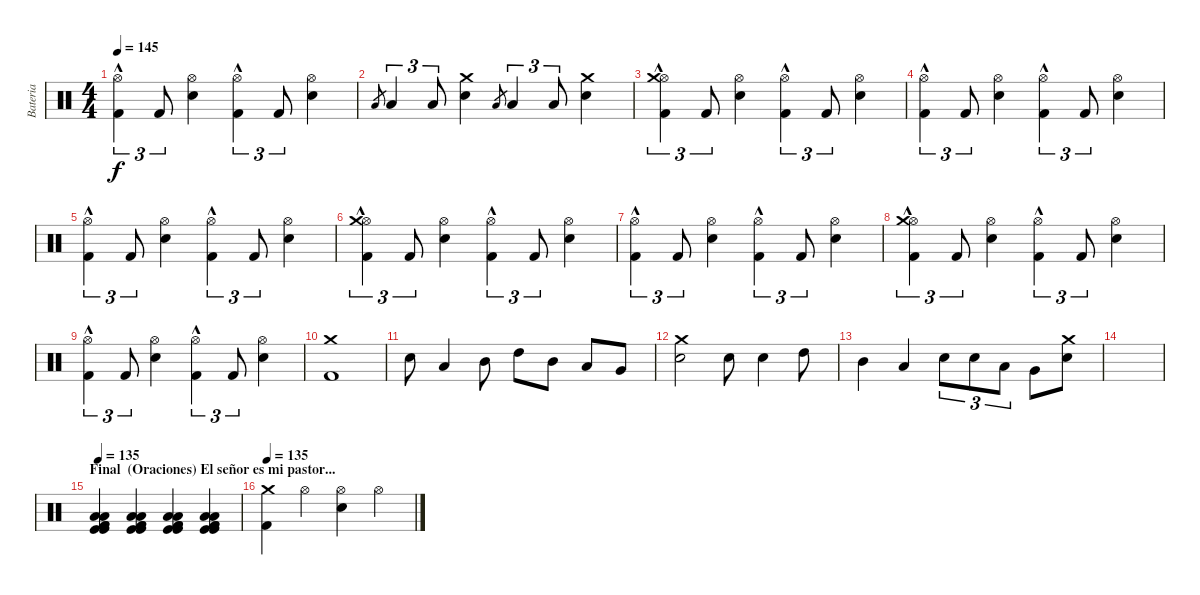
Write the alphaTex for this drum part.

\track ("Bateria" "Bateria") {instrument percussion}
\staff {score}
\articulation defaults
\ts (4 4)
\tempo 145
\clef neutral
\ks c
("Hi-Hat (open)"{hac} "Kick (hit) 2").4{tu (3 2) dy f} "Kick (hit) 2".8{tu (3 2)} ("Hi-Hat (open)" "Snare (hit) 2").4 ("Hi-Hat (open)"{hac} "Kick (hit) 2").4{tu (3 2)} "Kick (hit) 2".8{tu (3 2)} ("Hi-Hat (open)" "Snare (hit) 2").4 |
"Low Tom (hit)".8{gr} "Low Tom (hit)".4{tu (3 2)} "Low Tom (hit)".8{tu (3 2)} ("Crash medium (hit)" "Snare (hit) 2").4 "Low Tom (hit)".8{gr} "Low Tom (hit)".4{tu (3 2)} "Low Tom (hit)".8{tu (3 2)} ("Crash medium (hit)" "Snare (hit) 2").4 |
("Hi-Hat (open)"{hac} "Crash medium (hit)" "Kick (hit) 2").4{tu (3 2)} "Kick (hit) 2".8{tu (3 2)} ("Hi-Hat (open)" "Snare (hit) 2").4 ("Hi-Hat (open)"{hac} "Kick (hit) 2").4{tu (3 2)} "Kick (hit) 2".8{tu (3 2)} ("Hi-Hat (open)" "Snare (hit) 2").4 |
("Hi-Hat (open)"{hac} "Kick (hit) 2").4{tu (3 2)} "Kick (hit) 2".8{tu (3 2)} ("Hi-Hat (open)" "Snare (hit) 2").4 ("Hi-Hat (open)"{hac} "Kick (hit) 2").4{tu (3 2)} "Kick (hit) 2".8{tu (3 2)} ("Hi-Hat (open)" "Snare (hit) 2").4 |
("Hi-Hat (open)"{hac} "Kick (hit) 2").4{tu (3 2)} "Kick (hit) 2".8{tu (3 2)} ("Hi-Hat (open)" "Snare (hit) 2").4 ("Hi-Hat (open)"{hac} "Kick (hit) 2").4{tu (3 2)} "Kick (hit) 2".8{tu (3 2)} ("Hi-Hat (open)" "Snare (hit) 2").4 |
("Hi-Hat (open)"{hac} "Crash medium (hit)" "Kick (hit) 2").4{tu (3 2)} "Kick (hit) 2".8{tu (3 2)} ("Hi-Hat (open)" "Snare (hit) 2").4 ("Hi-Hat (open)"{hac} "Kick (hit) 2").4{tu (3 2)} "Kick (hit) 2".8{tu (3 2)} ("Hi-Hat (open)" "Snare (hit) 2").4 |
("Hi-Hat (open)"{hac} "Kick (hit) 2").4{tu (3 2)} "Kick (hit) 2".8{tu (3 2)} ("Hi-Hat (open)" "Snare (hit) 2").4 ("Hi-Hat (open)"{hac} "Kick (hit) 2").4{tu (3 2)} "Kick (hit) 2".8{tu (3 2)} ("Hi-Hat (open)" "Snare (hit) 2").4 |
("Hi-Hat (open)"{hac} "Crash medium (hit)" "Kick (hit) 2").4{tu (3 2)} "Kick (hit) 2".8{tu (3 2)} ("Hi-Hat (open)" "Snare (hit) 2").4 ("Hi-Hat (open)"{hac} "Kick (hit) 2").4{tu (3 2)} "Kick (hit) 2".8{tu (3 2)} ("Hi-Hat (open)" "Snare (hit) 2").4 |
("Hi-Hat (open)"{hac} "Kick (hit) 2").4{tu (3 2)} "Kick (hit) 2".8{tu (3 2)} ("Hi-Hat (open)" "Snare (hit) 2").4 ("Hi-Hat (open)"{hac} "Kick (hit) 2").4{tu (3 2)} "Kick (hit) 2".8{tu (3 2)} ("Hi-Hat (open)" "Snare (hit) 2").4 |
("Kick (hit) 2" "Crash medium (hit)").1 |
"Snare (hit) 2".8 "Low Tom (hit)".4 "Mid Tom (hit)".8 "High Tom (hit)".8 "Mid Tom (hit)".8 "Low Tom (hit)".8 "Very Low Tom (hit)".8 |
("Crash medium (hit)" "Snare (hit) 2").2 "Snare (hit) 2".8 "Snare (hit) 2".4 "High Tom (hit)".8 |
"Mid Tom (hit)".4 "Low Tom (hit)".4 "Snare (hit) 2".8{tu (3 2)} "Snare (hit) 2".8{tu (3 2)} "Low Tom (hit)".8{tu (3 2)} "Very Low Tom (hit)".8 ("Crash medium (hit)" "Snare (hit) 2").8 |
|
\section ("" "Final  (Oraciones) El señor es mi pastor...")
\tempo 135
("Low Floor Tom (hit)" "Kick (hit)" "Kick (hit)" "Kick (hit) 2" "Kick (hit) 2" "Low Floor Tom (hit)").4 ("Low Floor Tom (hit)" "Kick (hit)" "Kick (hit)" "Kick (hit) 2" "Kick (hit) 2" "Low Floor Tom (hit)").4 ("Low Floor Tom (hit)" "Kick (hit)" "Kick (hit)" "Kick (hit) 2" "Kick (hit) 2" "Low Floor Tom (hit)").4 ("Low Floor Tom (hit)" "Kick (hit)" "Kick (hit)" "Kick (hit) 2" "Kick (hit) 2" "Low Floor Tom (hit)").4 |
\tempo 140
\tempo 135
("Kick (hit) 2" "Crash medium (hit)").4 "Hi-Hat (open)".4 ("Hi-Hat (open)" "Snare (hit) 2").4 "Hi-Hat (open)".4
